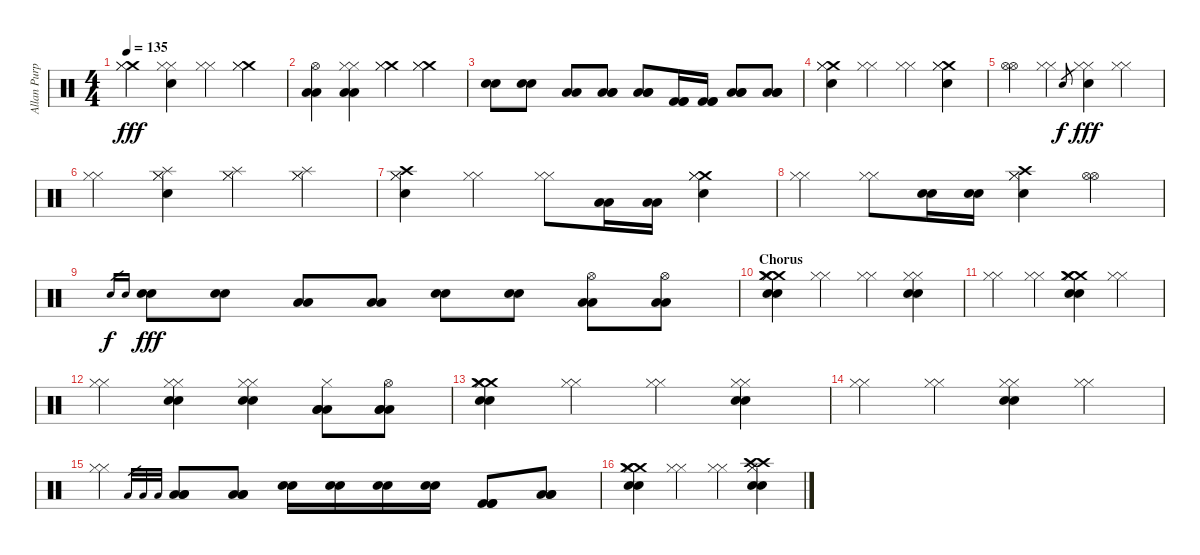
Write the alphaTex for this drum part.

\track ("Allan Purple" "Allan Purp") {instrument percussion}
\staff {score}
\articulation defaults
\ts (4 4)
\tempo 135
\clef neutral
\ks c
("Crash medium (hit)" "Hi-Hat (closed)" "Hi-Hat (closed)").4{dy fff} ("Hi-Hat (closed)" "Hi-Hat (closed)" "Electric Snare (hit)").4 ("Hi-Hat (closed)" "Hi-Hat (closed)").4 ("Crash medium (hit)" "Hi-Hat (closed)" "Hi-Hat (closed)").4 |
("Hi-Hat (open)" "Low Tom (hit)" "Low Tom (hit)").4 ("Hi-Hat (closed)" "Hi-Hat (closed)" "Low Tom (hit)" "Low Tom (hit)").4 ("Crash medium (hit)" "Hi-Hat (closed)" "Hi-Hat (closed)").4 ("Crash medium (hit)" "Hi-Hat (closed)" "Hi-Hat (closed)").4 |
("Electric Snare (hit)" "Electric Snare (hit)").8 ("Electric Snare (hit)" "Electric Snare (hit)").8 ("Low Tom (hit)" "Low Tom (hit)").8 ("Low Tom (hit)" "Low Tom (hit)" "Low Tom (hit)").8 ("Low Tom (hit)" "Low Tom (hit)" "Low Tom (hit)").8 ("Kick (hit) 2" "Kick (hit) 2" "Kick (hit) 2").16 ("Kick (hit) 2" "Kick (hit) 2" "Kick (hit) 2").16 ("Low Tom (hit)" "Low Tom (hit)" "Low Tom (hit)").8 ("Low Tom (hit)" "Low Tom (hit)" "Low Tom (hit)").8 |
("Crash medium (hit)" "Hi-Hat (closed)" "Hi-Hat (closed)" "Electric Snare (hit)").4 ("Hi-Hat (closed)" "Hi-Hat (closed)").4 ("Hi-Hat (closed)" "Hi-Hat (closed)").4 ("Crash medium (hit)" "Hi-Hat (closed)" "Hi-Hat (closed)" "Electric Snare (hit)").4 |
("Hi-Hat (open)" "Hi-Hat (open)").4 ("Hi-Hat (closed)" "Hi-Hat (closed)").4 "Electric Snare (hit)".8{gr dy f} ("Hi-Hat (closed)" "Hi-Hat (closed)" "Electric Snare (hit)").4{dy fff} ("Hi-Hat (closed)" "Hi-Hat (closed)").4 |
("Hi-Hat (closed)" "Hi-Hat (closed)").4 ("Splash (hit)" "Hi-Hat (closed)" "Hi-Hat (closed)" "Electric Snare (hit)").4 ("Splash (hit)" "Hi-Hat (closed)" "Hi-Hat (closed)").4 ("Splash (hit)" "Hi-Hat (closed)" "Hi-Hat (closed)").4 |
("Crash high (hit)" "Hi-Hat (closed)" "Hi-Hat (closed)" "Electric Snare (hit)").4 ("Hi-Hat (closed)" "Hi-Hat (closed)").4 ("Hi-Hat (closed)" "Hi-Hat (closed)").8 ("Low Tom (hit)" "Low Tom (hit)").16 ("Low Tom (hit)" "Low Tom (hit)").16 ("Crash medium (hit)" "Hi-Hat (closed)" "Hi-Hat (closed)" "Electric Snare (hit)").4 |
("Hi-Hat (closed)" "Hi-Hat (closed)").4 ("Hi-Hat (closed)" "Hi-Hat (closed)").8 ("Electric Snare (hit)" "Electric Snare (hit)").16 ("Electric Snare (hit)" "Electric Snare (hit)").16 ("Crash high (hit)" "Hi-Hat (closed)" "Hi-Hat (closed)" "Electric Snare (hit)").4 ("Hi-Hat (open)" "Hi-Hat (open)").4 |
"Electric Snare (hit)".16{gr dy f} "Electric Snare (hit)".16{gr} ("Electric Snare (hit)" "Electric Snare (hit)").8{dy fff} ("Electric Snare (hit)" "Electric Snare (hit)").8 ("Low Tom (hit)" "Low Tom (hit)").8 ("Low Tom (hit)" "Low Tom (hit)").8 ("Electric Snare (hit)" "Electric Snare (hit)").8 ("Electric Snare (hit)" "Electric Snare (hit)").8 ("Hi-Hat (open)" "Low Tom (hit)" "Low Tom (hit)").8 ("Hi-Hat (open)" "Low Tom (hit)" "Low Tom (hit)").8 |
\section ("" "Chorus")
("Crash medium (hit)" "Crash medium (hit)" "Hi-Hat (closed)" "Hi-Hat (closed)" "Electric Snare (hit)" "Electric Snare (hit)").4 ("Hi-Hat (closed)" "Hi-Hat (closed)").4 ("Hi-Hat (closed)" "Hi-Hat (closed)").4 ("Hi-Hat (closed)" "Hi-Hat (closed)" "Electric Snare (hit)" "Electric Snare (hit)").4 |
("Hi-Hat (closed)" "Hi-Hat (closed)").4 ("Hi-Hat (closed)" "Hi-Hat (closed)").4 ("Crash medium (hit)" "Crash medium (hit)" "Hi-Hat (closed)" "Hi-Hat (closed)" "Electric Snare (hit)" "Electric Snare (hit)").4 ("Hi-Hat (closed)" "Hi-Hat (closed)").4 |
("Hi-Hat (closed)" "Hi-Hat (closed)").4 ("Hi-Hat (closed)" "Hi-Hat (closed)" "Electric Snare (hit)" "Electric Snare (hit)").4 ("Hi-Hat (closed)" "Hi-Hat (closed)" "Electric Snare (hit)" "Electric Snare (hit)").4 ("Hi-Hat (closed)" "Low Tom (hit)" "Low Tom (hit)" "Low Tom (hit)").8 ("Hi-Hat (open)" "Low Tom (hit)" "Low Tom (hit)" "Low Tom (hit)").8 |
("Crash medium (hit)" "Crash medium (hit)" "Hi-Hat (closed)" "Hi-Hat (closed)" "Electric Snare (hit)" "Electric Snare (hit)").4 ("Hi-Hat (closed)" "Hi-Hat (closed)").4 ("Hi-Hat (closed)" "Hi-Hat (closed)").4 ("Hi-Hat (closed)" "Hi-Hat (closed)" "Electric Snare (hit)" "Electric Snare (hit)").4 |
("Hi-Hat (closed)" "Hi-Hat (closed)").4 ("Hi-Hat (closed)" "Hi-Hat (closed)").4 ("Hi-Hat (closed)" "Hi-Hat (closed)" "Electric Snare (hit)" "Electric Snare (hit)").4 ("Hi-Hat (closed)" "Hi-Hat (closed)").4 |
("Hi-Hat (closed)" "Hi-Hat (closed)").4 "Low Tom (hit)".32{gr} "Low Tom (hit)".32{gr} "Low Tom (hit)".32{gr} ("Low Tom (hit)" "Low Tom (hit)" "Low Tom (hit)").8 ("Low Tom (hit)" "Low Tom (hit)" "Low Tom (hit)").8 ("Electric Snare (hit)" "Electric Snare (hit)").16 ("Electric Snare (hit)" "Electric Snare (hit)").16 ("Electric Snare (hit)" "Electric Snare (hit)").16 ("Electric Snare (hit)" "Electric Snare (hit)").16 ("Kick (hit) 2" "Kick (hit) 2" "Kick (hit) 2").8 ("Low Tom (hit)" "Low Tom (hit)" "Low Tom (hit)").8 |
("Crash medium (hit)" "Crash medium (hit)" "Hi-Hat (closed)" "Hi-Hat (closed)" "Electric Snare (hit)" "Electric Snare (hit)").4 ("Hi-Hat (closed)" "Hi-Hat (closed)").4 ("Hi-Hat (closed)" "Hi-Hat (closed)").4 ("Crash high (hit)" "Crash high (hit)" "Hi-Hat (closed)" "Hi-Hat (closed)" "Electric Snare (hit)" "Electric Snare (hit)").4
